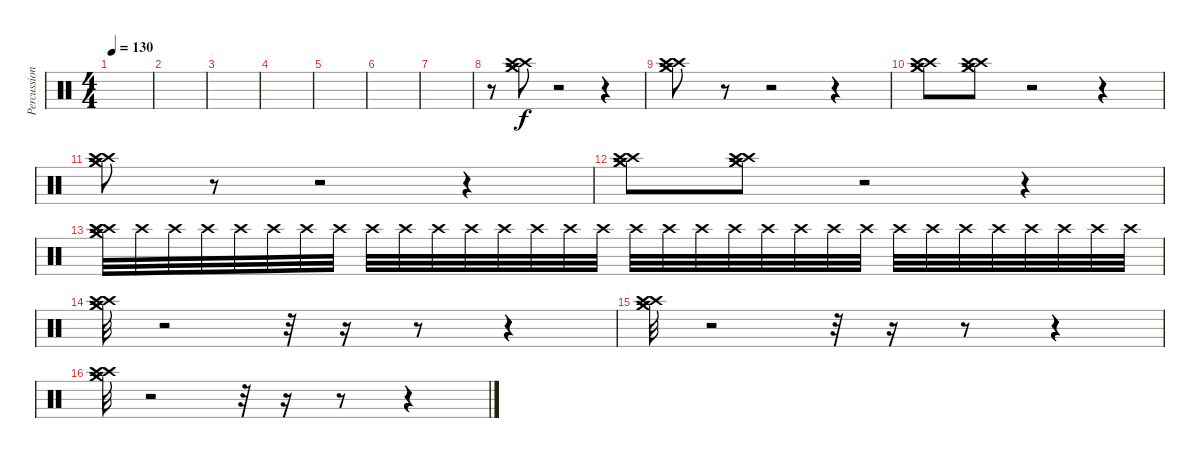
\track ("Percussioni" "Percussion") {instrument percussion}
\staff {score}
\articulation defaults
\ts (4 4)
\tempo 130
\clef neutral
\ks c
|
|
|
|
|
|
|
r.8 ("Crash high (hit)" "Crash high (hit)" "Crash medium (hit)" "Crash medium (hit)").8 r.2 r.4 |
("Crash high (hit)" "Crash high (hit)" "Crash medium (hit)" "Crash medium (hit)").8 r.8 r.2 r.4 |
("Crash high (hit)" "Crash high (hit)" "Crash medium (hit)" "Crash medium (hit)").8 ("Crash high (hit)" "Crash high (hit)" "Crash medium (hit)" "Crash medium (hit)").8 r.2 r.4 |
("Crash high (hit)" "Crash high (hit)" "Crash medium (hit)" "Crash medium (hit)").8 r.8 r.2 r.4 |
("Crash high (hit)" "Crash high (hit)" "Crash medium (hit)" "Crash medium (hit)").8 ("Crash high (hit)" "Crash high (hit)" "Crash medium (hit)" "Crash medium (hit)").8 r.2 r.4 |
("Crash high (hit)" "Crash high (hit)" "Crash medium (hit)" "Crash medium (hit)" "Crash high (hit)").32 "Crash high (hit)".32 "Crash high (hit)".32 "Crash high (hit)".32 "Crash high (hit)".32 "Crash high (hit)".32 "Crash high (hit)".32 "Crash high (hit)".32 "Crash high (hit)".32 "Crash high (hit)".32 "Crash high (hit)".32 "Crash high (hit)".32 "Crash high (hit)".32 "Crash high (hit)".32 "Crash high (hit)".32 "Crash high (hit)".32 "Crash high (hit)".32 "Crash high (hit)".32 "Crash high (hit)".32 "Crash high (hit)".32 "Crash high (hit)".32 "Crash high (hit)".32 "Crash high (hit)".32 "Crash high (hit)".32 "Crash high (hit)".32 "Crash high (hit)".32 "Crash high (hit)".32 "Crash high (hit)".32 "Crash high (hit)".32 "Crash high (hit)".32 "Crash high (hit)".32 "Crash high (hit)".32 |
("Crash high (hit)" "Crash high (hit)" "Crash medium (hit)" "Crash medium (hit)").32 r.2 r.32 r.16 r.8 r.4 |
("Crash high (hit)" "Crash high (hit)" "Crash medium (hit)" "Crash medium (hit)").32 r.2 r.32 r.16 r.8 r.4 |
("Crash high (hit)" "Crash high (hit)" "Crash medium (hit)" "Crash medium (hit)").32 r.2 r.32 r.16 r.8 r.4
